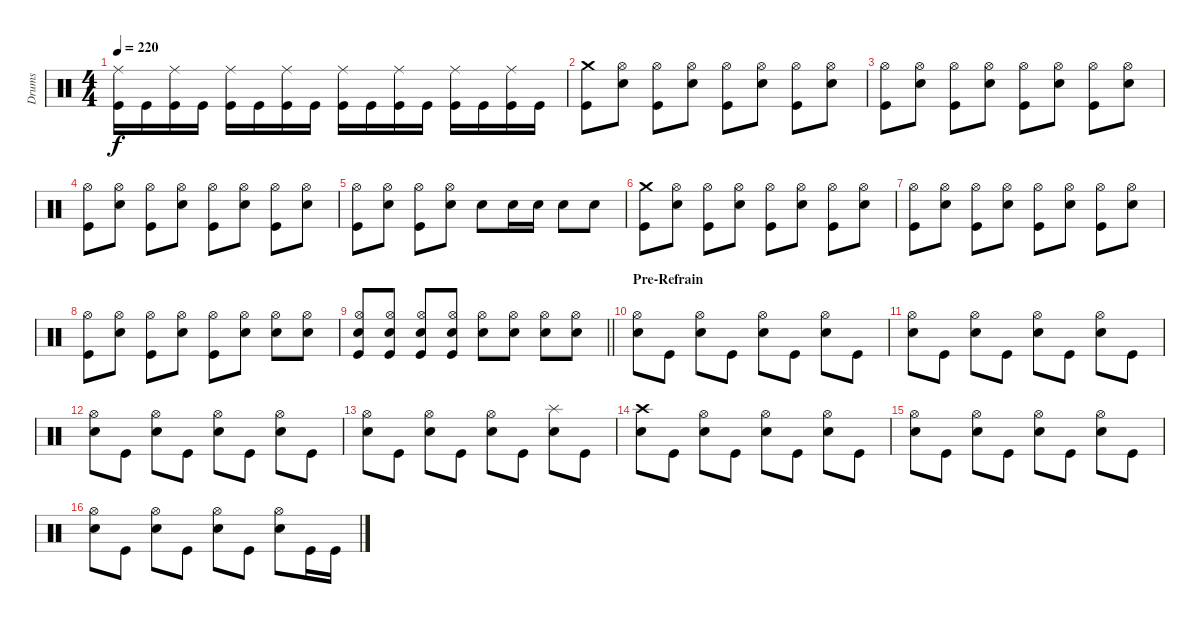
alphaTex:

\track ("Drums" "Drums") {instrument percussion}
\staff {score}
\articulation defaults
\ts (4 4)
\tempo 220
\clef neutral
\ks c
("Ride (middle)" "Kick (hit)").16{dy f} "Kick (hit)".16 ("Ride (middle)" "Kick (hit)").16 "Kick (hit)".16 ("Ride (middle)" "Kick (hit)").16 "Kick (hit)".16 ("Ride (middle)" "Kick (hit)").16 "Kick (hit)".16 ("Ride (middle)" "Kick (hit)").16 "Kick (hit)".16 ("Ride (middle)" "Kick (hit)").16 "Kick (hit)".16 ("Ride (middle)" "Kick (hit)").16 "Kick (hit)".16 ("Ride (middle)" "Kick (hit)").16 "Kick (hit)".16 |
("Crash medium (hit)" "Kick (hit)").8 ("Hi-Hat (open)" "Snare (hit) 2").8 ("Hi-Hat (open)" "Kick (hit)").8 ("Hi-Hat (open)" "Snare (hit) 2").8 ("Hi-Hat (open)" "Kick (hit)").8 ("Hi-Hat (open)" "Snare (hit) 2").8 ("Hi-Hat (open)" "Kick (hit)").8 ("Hi-Hat (open)" "Snare (hit) 2").8 |
("Hi-Hat (open)" "Kick (hit)").8 ("Hi-Hat (open)" "Snare (hit) 2").8 ("Hi-Hat (open)" "Kick (hit)").8 ("Hi-Hat (open)" "Snare (hit) 2").8 ("Hi-Hat (open)" "Kick (hit)").8 ("Hi-Hat (open)" "Snare (hit) 2").8 ("Hi-Hat (open)" "Kick (hit)").8 ("Hi-Hat (open)" "Snare (hit) 2").8 |
("Hi-Hat (open)" "Kick (hit)").8 ("Hi-Hat (open)" "Snare (hit) 2").8 ("Hi-Hat (open)" "Kick (hit)").8 ("Hi-Hat (open)" "Snare (hit) 2").8 ("Hi-Hat (open)" "Kick (hit)").8 ("Hi-Hat (open)" "Snare (hit) 2").8 ("Hi-Hat (open)" "Kick (hit)").8 ("Hi-Hat (open)" "Snare (hit) 2").8 |
("Hi-Hat (open)" "Kick (hit)").8 ("Hi-Hat (open)" "Snare (hit) 2").8 ("Hi-Hat (open)" "Kick (hit)").8 ("Hi-Hat (open)" "Snare (hit) 2").8 "Snare (hit) 2".8 "Snare (hit) 2".16 "Snare (hit) 2".16 "Snare (hit) 2".8 "Snare (hit) 2".8 |
("Crash medium (hit)" "Kick (hit)").8 ("Hi-Hat (open)" "Snare (hit) 2").8 ("Hi-Hat (open)" "Kick (hit)").8 ("Hi-Hat (open)" "Snare (hit) 2").8 ("Hi-Hat (open)" "Kick (hit)").8 ("Hi-Hat (open)" "Snare (hit) 2").8 ("Hi-Hat (open)" "Kick (hit)").8 ("Hi-Hat (open)" "Snare (hit) 2").8 |
("Hi-Hat (open)" "Kick (hit)").8 ("Hi-Hat (open)" "Snare (hit) 2").8 ("Hi-Hat (open)" "Kick (hit)").8 ("Hi-Hat (open)" "Snare (hit) 2").8 ("Hi-Hat (open)" "Kick (hit)").8 ("Hi-Hat (open)" "Snare (hit) 2").8 ("Hi-Hat (open)" "Kick (hit)").8 ("Hi-Hat (open)" "Snare (hit) 2").8 |
("Hi-Hat (open)" "Kick (hit)").8 ("Hi-Hat (open)" "Snare (hit) 2").8 ("Hi-Hat (open)" "Kick (hit)").8 ("Hi-Hat (open)" "Snare (hit) 2").8 ("Hi-Hat (open)" "Kick (hit)").8 ("Hi-Hat (open)" "Snare (hit) 2").8 ("Hi-Hat (open)" "Snare (hit) 2").8 ("Hi-Hat (open)" "Snare (hit) 2").8 |
\barLineRight lightlight
("Hi-Hat (open)" "Snare (hit) 2" "Kick (hit)").8 ("Hi-Hat (open)" "Snare (hit) 2" "Kick (hit)").8 ("Hi-Hat (open)" "Snare (hit) 2" "Kick (hit)").8 ("Hi-Hat (open)" "Snare (hit) 2" "Kick (hit)").8 ("Hi-Hat (open)" "Snare (hit) 2").8 ("Hi-Hat (open)" "Snare (hit) 2").8 ("Hi-Hat (open)" "Snare (hit) 2").8 ("Hi-Hat (open)" "Snare (hit) 2").8 |
\section ("" "Pre-Refrain")
("Hi-Hat (open)" "Snare (hit) 2").8 "Kick (hit)".8 ("Hi-Hat (open)" "Snare (hit) 2").8 "Kick (hit)".8 ("Hi-Hat (open)" "Snare (hit) 2").8 "Kick (hit)".8 ("Hi-Hat (open)" "Snare (hit) 2").8 "Kick (hit)".8 |
("Hi-Hat (open)" "Snare (hit) 2").8 "Kick (hit)".8 ("Hi-Hat (open)" "Snare (hit) 2").8 "Kick (hit)".8 ("Hi-Hat (open)" "Snare (hit) 2").8 "Kick (hit)".8 ("Hi-Hat (open)" "Snare (hit) 2").8 "Kick (hit)".8 |
("Hi-Hat (open)" "Snare (hit) 2").8 "Kick (hit)".8 ("Hi-Hat (open)" "Snare (hit) 2").8 "Kick (hit)".8 ("Hi-Hat (open)" "Snare (hit) 2").8 "Kick (hit)".8 ("Hi-Hat (open)" "Snare (hit) 2").8 "Kick (hit)".8 |
("Hi-Hat (open)" "Snare (hit) 2").8 "Kick (hit)".8 ("Hi-Hat (open)" "Snare (hit) 2").8 "Kick (hit)".8 ("Hi-Hat (open)" "Snare (hit) 2").8 "Kick (hit)".8 ("Splash (hit)" "Snare (hit) 2").8 "Kick (hit)".8 |
("Crash high (hit)" "Snare (hit) 2").8 "Kick (hit)".8 ("Hi-Hat (open)" "Snare (hit) 2").8 "Kick (hit)".8 ("Hi-Hat (open)" "Snare (hit) 2").8 "Kick (hit)".8 ("Hi-Hat (open)" "Snare (hit) 2").8 "Kick (hit)".8 |
("Hi-Hat (open)" "Snare (hit) 2").8 "Kick (hit)".8 ("Hi-Hat (open)" "Snare (hit) 2").8 "Kick (hit)".8 ("Hi-Hat (open)" "Snare (hit) 2").8 "Kick (hit)".8 ("Hi-Hat (open)" "Snare (hit) 2").8 "Kick (hit)".8 |
("Hi-Hat (open)" "Snare (hit) 2").8 "Kick (hit)".8 ("Hi-Hat (open)" "Snare (hit) 2").8 "Kick (hit)".8 ("Hi-Hat (open)" "Snare (hit) 2").8 "Kick (hit)".8 ("Hi-Hat (open)" "Snare (hit) 2").8 "Kick (hit)".16 "Kick (hit)".16
